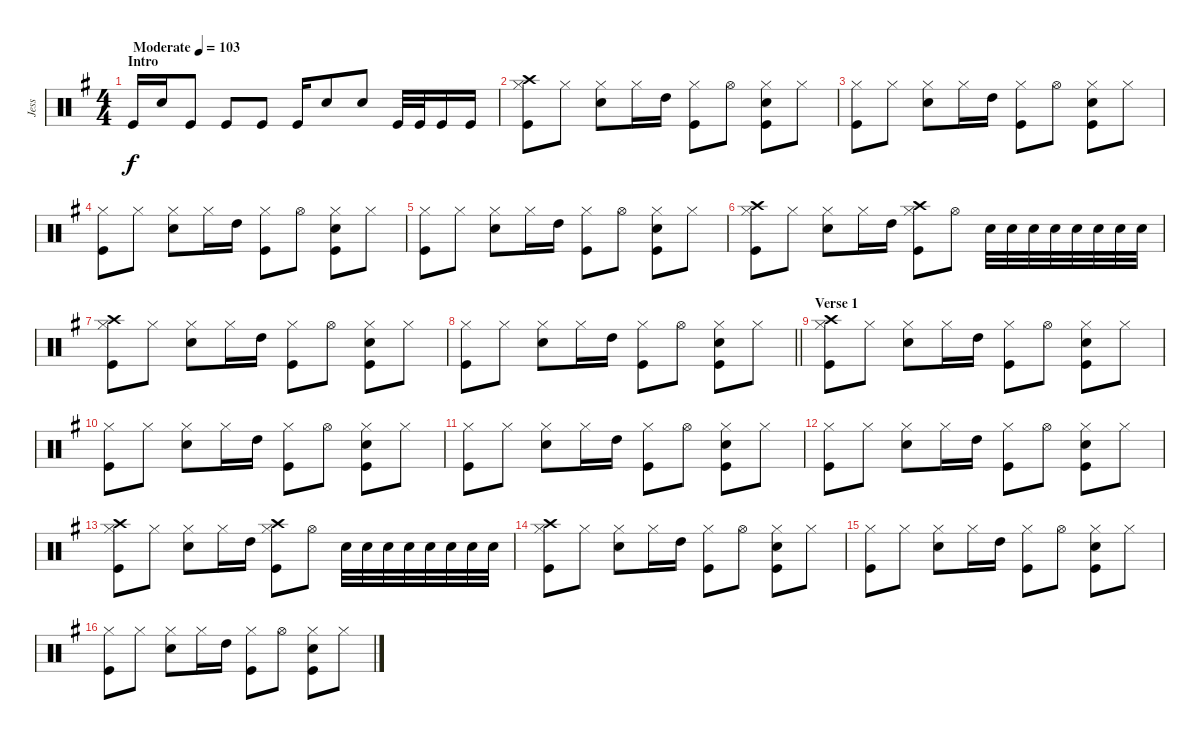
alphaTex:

\track ("Jess" "Jess") {instrument percussion}
\staff {score}
\articulation defaults
\ts (4 4)
\section ("" "Intro")
\tempo (103 "Moderate")
\clef neutral
\ks g "Kick (hit)".16{dy f} "Snare (hit) 2".16 "Kick (hit)".8 "Kick (hit)".8 "Kick (hit)".8 "Kick (hit)".16 "Snare (hit) 2".8 "Snare (hit) 2".8 "Kick (hit)".32 "Kick (hit)".32 "Kick (hit)".16 "Kick (hit)".16
|
("Crash high (hit)" "Hi-Hat (closed)" "Kick (hit)").8 "Hi-Hat (closed)".8 ("Hi-Hat (closed)" "Snare (hit) 2").8 "Hi-Hat (closed)".16 "High Tom (hit)".16 ("Hi-Hat (closed)" "Kick (hit)").8 "Hi-Hat (open)".8 ("Hi-Hat (closed)" "Snare (hit) 2" "Kick (hit)").8 "Hi-Hat (closed)".8 |
("Hi-Hat (closed)" "Kick (hit)").8 "Hi-Hat (closed)".8 ("Hi-Hat (closed)" "Snare (hit) 2").8 "Hi-Hat (closed)".16 "High Tom (hit)".16 ("Hi-Hat (closed)" "Kick (hit)").8 "Hi-Hat (open)".8 ("Hi-Hat (closed)" "Snare (hit) 2" "Kick (hit)").8 "Hi-Hat (closed)".8 |
("Hi-Hat (closed)" "Kick (hit)").8 "Hi-Hat (closed)".8 ("Hi-Hat (closed)" "Snare (hit) 2").8 "Hi-Hat (closed)".16 "High Tom (hit)".16 ("Hi-Hat (closed)" "Kick (hit)").8 "Hi-Hat (open)".8 ("Hi-Hat (closed)" "Snare (hit) 2" "Kick (hit)").8 "Hi-Hat (closed)".8 |
("Hi-Hat (closed)" "Kick (hit)").8 "Hi-Hat (closed)".8 ("Hi-Hat (closed)" "Snare (hit) 2").8 "Hi-Hat (closed)".16 "High Tom (hit)".16 ("Hi-Hat (closed)" "Kick (hit)").8 "Hi-Hat (open)".8 ("Hi-Hat (closed)" "Snare (hit) 2" "Kick (hit)").8 "Hi-Hat (closed)".8 |
("Crash high (hit)" "Hi-Hat (closed)" "Kick (hit)").8 "Hi-Hat (closed)".8 ("Hi-Hat (closed)" "Snare (hit) 2").8 "Hi-Hat (closed)".16 "High Tom (hit)".16 ("Crash high (hit)" "Hi-Hat (closed)" "Kick (hit)").8 "Hi-Hat (open)".8 "Snare (hit) 2".32 "Snare (hit) 2".32 "Snare (hit) 2".32 "Snare (hit) 2".32 "Snare (hit) 2".32 "Snare (hit) 2".32 "Snare (hit) 2".32 "Snare (hit) 2".32 |
("Crash high (hit)" "Hi-Hat (closed)" "Kick (hit)").8 "Hi-Hat (closed)".8 ("Hi-Hat (closed)" "Snare (hit) 2").8 "Hi-Hat (closed)".16 "High Tom (hit)".16 ("Hi-Hat (closed)" "Kick (hit)").8 "Hi-Hat (open)".8 ("Hi-Hat (closed)" "Snare (hit) 2" "Kick (hit)").8 "Hi-Hat (closed)".8 |
\barLineRight lightlight
("Hi-Hat (closed)" "Kick (hit)").8 "Hi-Hat (closed)".8 ("Hi-Hat (closed)" "Snare (hit) 2").8 "Hi-Hat (closed)".16 "High Tom (hit)".16 ("Hi-Hat (closed)" "Kick (hit)").8 "Hi-Hat (open)".8 ("Hi-Hat (closed)" "Snare (hit) 2" "Kick (hit)").8 "Hi-Hat (closed)".8 |
\section ("" "Verse 1")
("Crash high (hit)" "Hi-Hat (closed)" "Kick (hit)").8 "Hi-Hat (closed)".8 ("Hi-Hat (closed)" "Snare (hit) 2").8 "Hi-Hat (closed)".16 "High Tom (hit)".16 ("Hi-Hat (closed)" "Kick (hit)").8 "Hi-Hat (open)".8 ("Hi-Hat (closed)" "Snare (hit) 2" "Kick (hit)").8 "Hi-Hat (closed)".8 |
("Hi-Hat (closed)" "Kick (hit)").8 "Hi-Hat (closed)".8 ("Hi-Hat (closed)" "Snare (hit) 2").8 "Hi-Hat (closed)".16 "High Tom (hit)".16 ("Hi-Hat (closed)" "Kick (hit)").8 "Hi-Hat (open)".8 ("Hi-Hat (closed)" "Snare (hit) 2" "Kick (hit)").8 "Hi-Hat (closed)".8 |
("Hi-Hat (closed)" "Kick (hit)").8 "Hi-Hat (closed)".8 ("Hi-Hat (closed)" "Snare (hit) 2").8 "Hi-Hat (closed)".16 "High Tom (hit)".16 ("Hi-Hat (closed)" "Kick (hit)").8 "Hi-Hat (open)".8 ("Hi-Hat (closed)" "Snare (hit) 2" "Kick (hit)").8 "Hi-Hat (closed)".8 |
("Hi-Hat (closed)" "Kick (hit)").8 "Hi-Hat (closed)".8 ("Hi-Hat (closed)" "Snare (hit) 2").8 "Hi-Hat (closed)".16 "High Tom (hit)".16 ("Hi-Hat (closed)" "Kick (hit)").8 "Hi-Hat (open)".8 ("Hi-Hat (closed)" "Snare (hit) 2" "Kick (hit)").8 "Hi-Hat (closed)".8 |
("Crash high (hit)" "Hi-Hat (closed)" "Kick (hit)").8 "Hi-Hat (closed)".8 ("Hi-Hat (closed)" "Snare (hit) 2").8 "Hi-Hat (closed)".16 "High Tom (hit)".16 ("Crash high (hit)" "Hi-Hat (closed)" "Kick (hit)").8 "Hi-Hat (open)".8 "Snare (hit) 2".32 "Snare (hit) 2".32 "Snare (hit) 2".32 "Snare (hit) 2".32 "Snare (hit) 2".32 "Snare (hit) 2".32 "Snare (hit) 2".32 "Snare (hit) 2".32 |
("Crash high (hit)" "Hi-Hat (closed)" "Kick (hit)").8 "Hi-Hat (closed)".8 ("Hi-Hat (closed)" "Snare (hit) 2").8 "Hi-Hat (closed)".16 "High Tom (hit)".16 ("Hi-Hat (closed)" "Kick (hit)").8 "Hi-Hat (open)".8 ("Hi-Hat (closed)" "Snare (hit) 2" "Kick (hit)").8 "Hi-Hat (closed)".8 |
("Hi-Hat (closed)" "Kick (hit)").8 "Hi-Hat (closed)".8 ("Hi-Hat (closed)" "Snare (hit) 2").8 "Hi-Hat (closed)".16 "High Tom (hit)".16 ("Hi-Hat (closed)" "Kick (hit)").8 "Hi-Hat (open)".8 ("Hi-Hat (closed)" "Snare (hit) 2" "Kick (hit)").8 "Hi-Hat (closed)".8 |
("Hi-Hat (closed)" "Kick (hit)").8 "Hi-Hat (closed)".8 ("Hi-Hat (closed)" "Snare (hit) 2").8 "Hi-Hat (closed)".16 "High Tom (hit)".16 ("Hi-Hat (closed)" "Kick (hit)").8 "Hi-Hat (open)".8 ("Hi-Hat (closed)" "Snare (hit) 2" "Kick (hit)").8 "Hi-Hat (closed)".8
